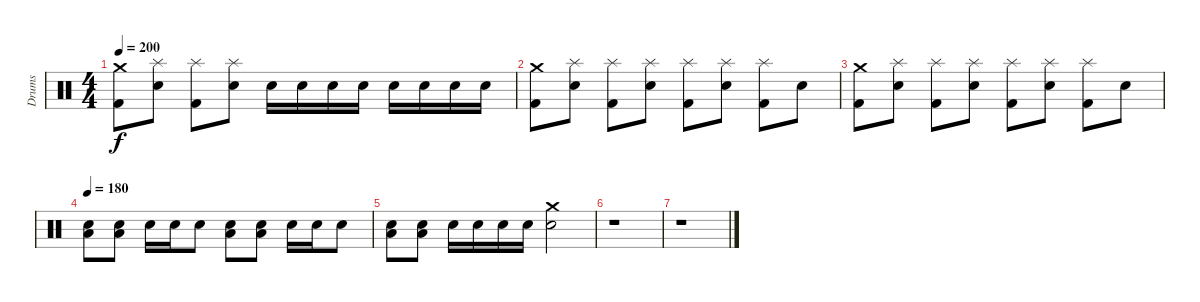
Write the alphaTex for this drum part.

\track ("Drums" "Drums") {instrument percussion}
\staff {score}
\articulation defaults
\ts (4 4)
\tempo 200
\clef neutral
\ks c
("Crash medium (hit)" "Kick (hit) 2").8{dy f} ("Splash (hit)" "Electric Snare (hit)").8 ("Splash (hit)" "Kick (hit) 2").8 ("Splash (hit)" "Electric Snare (hit)").8 "Electric Snare (hit)".16 "Electric Snare (hit)".16 "Electric Snare (hit)".16 "Electric Snare (hit)".16 "Electric Snare (hit)".16 "Electric Snare (hit)".16 "Electric Snare (hit)".16 "Electric Snare (hit)".16 |
("Crash medium (hit)" "Kick (hit) 2").8 ("Splash (hit)" "Electric Snare (hit)").8 ("Splash (hit)" "Kick (hit) 2").8 ("Splash (hit)" "Electric Snare (hit)").8 ("Splash (hit)" "Kick (hit) 2").8 ("Splash (hit)" "Electric Snare (hit)").8 ("Splash (hit)" "Kick (hit) 2").8 "Electric Snare (hit)".8 |
("Crash medium (hit)" "Kick (hit) 2").8 ("Splash (hit)" "Electric Snare (hit)").8 ("Splash (hit)" "Kick (hit) 2").8 ("Splash (hit)" "Electric Snare (hit)").8 ("Splash (hit)" "Kick (hit) 2").8 ("Splash (hit)" "Electric Snare (hit)").8 ("Splash (hit)" "Kick (hit) 2").8 "Electric Snare (hit)".8 |
\tempo 180
("Low Floor Tom (hit)" "Electric Snare (hit)").8 ("Low Floor Tom (hit)" "Electric Snare (hit)").8 "Electric Snare (hit)".16 "Electric Snare (hit)".16 "Electric Snare (hit)".8 ("Low Floor Tom (hit)" "Electric Snare (hit)").8 ("Low Floor Tom (hit)" "Electric Snare (hit)").8 "Electric Snare (hit)".16 "Electric Snare (hit)".16 "Electric Snare (hit)".8 |
("Low Floor Tom (hit)" "Electric Snare (hit)").8 ("Low Floor Tom (hit)" "Electric Snare (hit)").8 "Electric Snare (hit)".16 "Electric Snare (hit)".16 "Electric Snare (hit)".16 "Electric Snare (hit)".16 ("Crash medium (hit)" "Electric Snare (hit)").2 |
r.1 |
r.1
